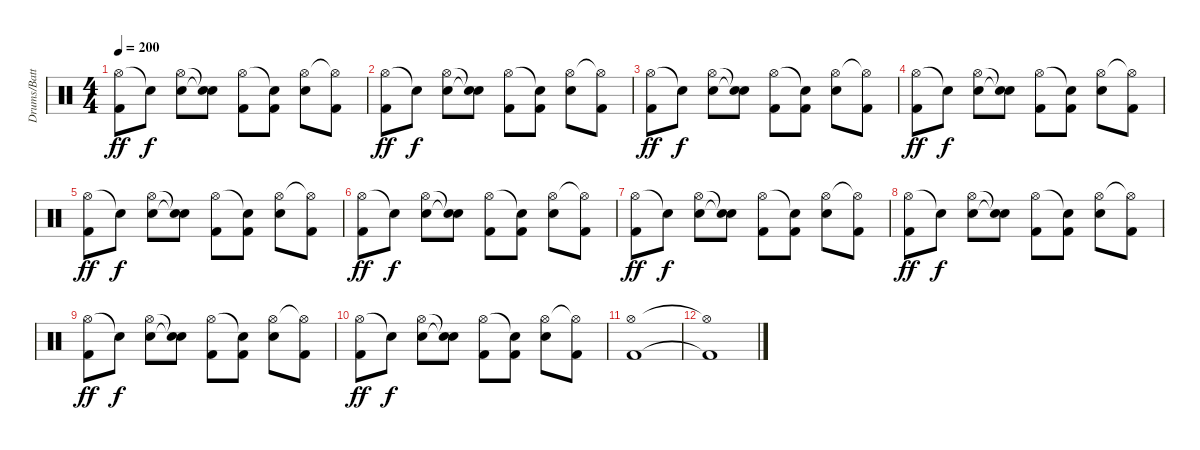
\track ("Drums/Batteria" "Drums/Batt") {instrument percussion}
\staff {score}
\articulation defaults
\ts (4 4)
\tempo 200
\clef neutral
\ks c
("Hi-Hat (open)" "Kick (hit) 2").8{dy ff} "Snare (hit)"{t}.8{dy f} ("Hi-Hat (open)" "Electric Snare (hit)").8 ("Snare (hit)"{t} "Snare (hit)"{t}).8 ("Hi-Hat (open)" "Kick (hit) 2").8 ("Snare (hit)"{t} "Kick (hit) 2").8 ("Hi-Hat (open)" "Electric Snare (hit)").8 ("Hi-Hat (open)"{t} "Kick (hit) 2").8 |
("Hi-Hat (open)" "Kick (hit) 2").8{dy ff} "Snare (hit)"{t}.8{dy f} ("Hi-Hat (open)" "Electric Snare (hit)").8 ("Snare (hit)"{t} "Snare (hit)"{t}).8 ("Hi-Hat (open)" "Kick (hit) 2").8 ("Snare (hit)"{t} "Kick (hit) 2").8 ("Hi-Hat (open)" "Electric Snare (hit)").8 ("Hi-Hat (open)"{t} "Kick (hit) 2").8 |
("Hi-Hat (open)" "Kick (hit) 2").8{dy ff} "Snare (hit)"{t}.8{dy f} ("Hi-Hat (open)" "Electric Snare (hit)").8 ("Snare (hit)"{t} "Snare (hit)"{t}).8 ("Hi-Hat (open)" "Kick (hit) 2").8 ("Snare (hit)"{t} "Kick (hit) 2").8 ("Hi-Hat (open)" "Electric Snare (hit)").8 ("Hi-Hat (open)"{t} "Kick (hit) 2").8 |
("Hi-Hat (open)" "Kick (hit) 2").8{dy ff} "Snare (hit)"{t}.8{dy f} ("Hi-Hat (open)" "Electric Snare (hit)").8 ("Snare (hit)"{t} "Snare (hit)"{t}).8 ("Hi-Hat (open)" "Kick (hit) 2").8 ("Snare (hit)"{t} "Kick (hit) 2").8 ("Hi-Hat (open)" "Electric Snare (hit)").8 ("Hi-Hat (open)"{t} "Kick (hit) 2").8 |
("Hi-Hat (open)" "Kick (hit) 2").8{dy ff} "Snare (hit)"{t}.8{dy f} ("Hi-Hat (open)" "Electric Snare (hit)").8 ("Snare (hit)"{t} "Snare (hit)"{t}).8 ("Hi-Hat (open)" "Kick (hit) 2").8 ("Snare (hit)"{t} "Kick (hit) 2").8 ("Hi-Hat (open)" "Electric Snare (hit)").8 ("Hi-Hat (open)"{t} "Kick (hit) 2").8 |
("Hi-Hat (open)" "Kick (hit) 2").8{dy ff} "Snare (hit)"{t}.8{dy f} ("Hi-Hat (open)" "Electric Snare (hit)").8 ("Snare (hit)"{t} "Snare (hit)"{t}).8 ("Hi-Hat (open)" "Kick (hit) 2").8 ("Snare (hit)"{t} "Kick (hit) 2").8 ("Hi-Hat (open)" "Electric Snare (hit)").8 ("Hi-Hat (open)"{t} "Kick (hit) 2").8 |
("Hi-Hat (open)" "Kick (hit) 2").8{dy ff} "Snare (hit)"{t}.8{dy f} ("Hi-Hat (open)" "Electric Snare (hit)").8 ("Snare (hit)"{t} "Snare (hit)"{t}).8 ("Hi-Hat (open)" "Kick (hit) 2").8 ("Snare (hit)"{t} "Kick (hit) 2").8 ("Hi-Hat (open)" "Electric Snare (hit)").8 ("Hi-Hat (open)"{t} "Kick (hit) 2").8 |
("Hi-Hat (open)" "Kick (hit) 2").8{dy ff} "Snare (hit)"{t}.8{dy f} ("Hi-Hat (open)" "Electric Snare (hit)").8 ("Snare (hit)"{t} "Snare (hit)"{t}).8 ("Hi-Hat (open)" "Kick (hit) 2").8 ("Snare (hit)"{t} "Kick (hit) 2").8 ("Hi-Hat (open)" "Electric Snare (hit)").8 ("Hi-Hat (open)"{t} "Kick (hit) 2").8 |
("Hi-Hat (open)" "Kick (hit) 2").8{dy ff} "Snare (hit)"{t}.8{dy f} ("Hi-Hat (open)" "Electric Snare (hit)").8 ("Snare (hit)"{t} "Snare (hit)"{t}).8 ("Hi-Hat (open)" "Kick (hit) 2").8 ("Snare (hit)"{t} "Kick (hit) 2").8 ("Hi-Hat (open)" "Electric Snare (hit)").8 ("Hi-Hat (open)"{t} "Kick (hit) 2").8 |
("Hi-Hat (open)" "Kick (hit) 2").8{dy ff} "Snare (hit)"{t}.8{dy f} ("Hi-Hat (open)" "Electric Snare (hit)").8 ("Snare (hit)"{t} "Snare (hit)"{t}).8 ("Hi-Hat (open)" "Kick (hit) 2").8 ("Snare (hit)"{t} "Kick (hit) 2").8 ("Hi-Hat (open)" "Electric Snare (hit)").8 ("Hi-Hat (open)"{t} "Kick (hit) 2").8 |
("Hi-Hat (open)" "Kick (hit) 2").1 |
("Hi-Hat (open)"{t} "Kick (hit) 2"{t}).1
